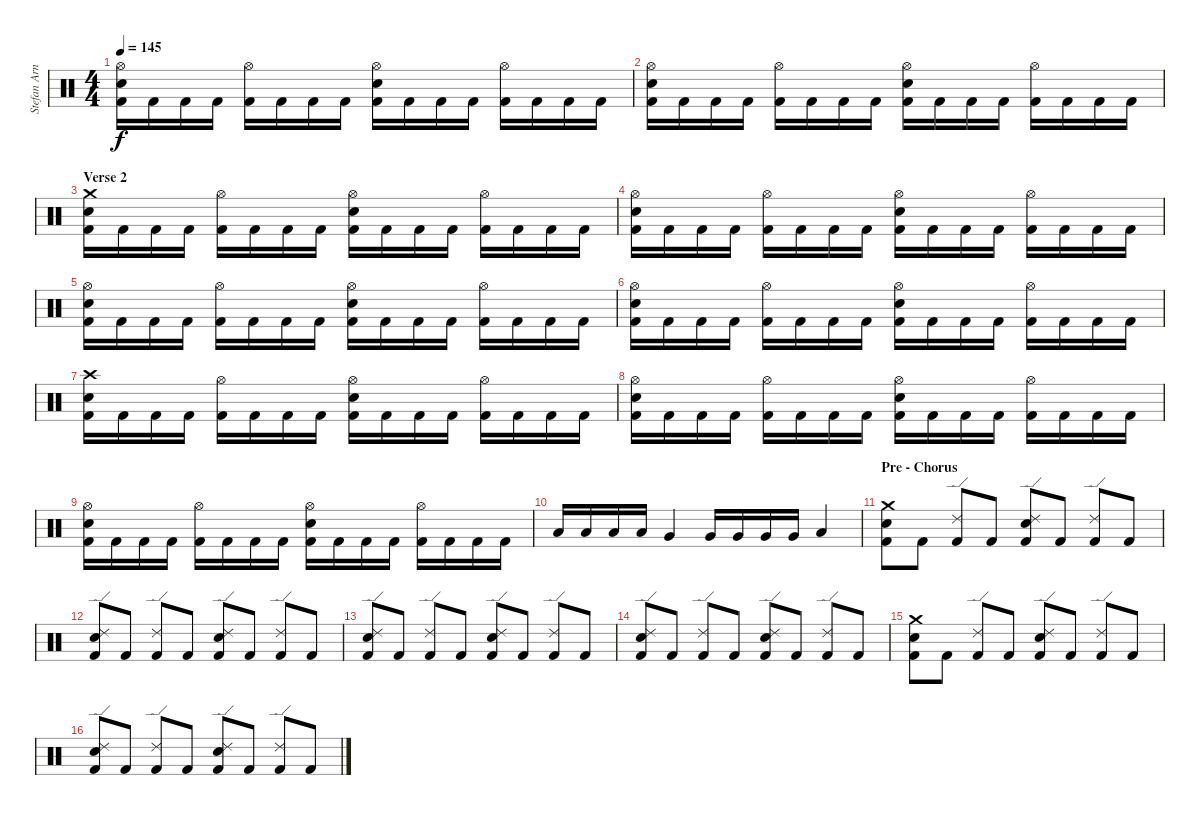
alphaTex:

\track ("Stefan Arnold" "Stefan Arn") {instrument percussion}
\staff {score}
\articulation defaults
\ts (4 4)
\tempo 145
\clef neutral
\ks c
("Hi-Hat (open)" "Electric Snare (hit)" "Kick (hit) 2").16{dy f} "Kick (hit) 2".16 "Kick (hit) 2".16 "Kick (hit) 2".16 ("Hi-Hat (open)" "Kick (hit) 2").16 "Kick (hit) 2".16 "Kick (hit) 2".16 "Kick (hit) 2".16 ("Hi-Hat (open)" "Electric Snare (hit)" "Kick (hit) 2").16 "Kick (hit) 2".16 "Kick (hit) 2".16 "Kick (hit) 2".16 ("Hi-Hat (open)" "Kick (hit) 2").16 "Kick (hit) 2".16 "Kick (hit) 2".16 "Kick (hit) 2".16 |
("Hi-Hat (open)" "Electric Snare (hit)" "Kick (hit) 2").16 "Kick (hit) 2".16 "Kick (hit) 2".16 "Kick (hit) 2".16 ("Hi-Hat (open)" "Kick (hit) 2").16 "Kick (hit) 2".16 "Kick (hit) 2".16 "Kick (hit) 2".16 ("Hi-Hat (open)" "Electric Snare (hit)" "Kick (hit) 2").16 "Kick (hit) 2".16 "Kick (hit) 2".16 "Kick (hit) 2".16 ("Hi-Hat (open)" "Kick (hit) 2").16 "Kick (hit) 2".16 "Kick (hit) 2".16 "Kick (hit) 2".16 |
\section ("" "Verse 2")
("Crash medium (hit)" "Electric Snare (hit)" "Kick (hit) 2").16 "Kick (hit) 2".16 "Kick (hit) 2".16 "Kick (hit) 2".16 ("Hi-Hat (open)" "Kick (hit) 2").16 "Kick (hit) 2".16 "Kick (hit) 2".16 "Kick (hit) 2".16 ("Hi-Hat (open)" "Electric Snare (hit)" "Kick (hit) 2").16 "Kick (hit) 2".16 "Kick (hit) 2".16 "Kick (hit) 2".16 ("Hi-Hat (open)" "Kick (hit) 2").16 "Kick (hit) 2".16 "Kick (hit) 2".16 "Kick (hit) 2".16 |
("Hi-Hat (open)" "Electric Snare (hit)" "Kick (hit) 2").16 "Kick (hit) 2".16 "Kick (hit) 2".16 "Kick (hit) 2".16 ("Hi-Hat (open)" "Kick (hit) 2").16 "Kick (hit) 2".16 "Kick (hit) 2".16 "Kick (hit) 2".16 ("Hi-Hat (open)" "Electric Snare (hit)" "Kick (hit) 2").16 "Kick (hit) 2".16 "Kick (hit) 2".16 "Kick (hit) 2".16 ("Hi-Hat (open)" "Kick (hit) 2").16 "Kick (hit) 2".16 "Kick (hit) 2".16 "Kick (hit) 2".16 |
("Hi-Hat (open)" "Electric Snare (hit)" "Kick (hit) 2").16 "Kick (hit) 2".16 "Kick (hit) 2".16 "Kick (hit) 2".16 ("Hi-Hat (open)" "Kick (hit) 2").16 "Kick (hit) 2".16 "Kick (hit) 2".16 "Kick (hit) 2".16 ("Hi-Hat (open)" "Electric Snare (hit)" "Kick (hit) 2").16 "Kick (hit) 2".16 "Kick (hit) 2".16 "Kick (hit) 2".16 ("Hi-Hat (open)" "Kick (hit) 2").16 "Kick (hit) 2".16 "Kick (hit) 2".16 "Kick (hit) 2".16 |
("Hi-Hat (open)" "Electric Snare (hit)" "Kick (hit) 2").16 "Kick (hit) 2".16 "Kick (hit) 2".16 "Kick (hit) 2".16 ("Hi-Hat (open)" "Kick (hit) 2").16 "Kick (hit) 2".16 "Kick (hit) 2".16 "Kick (hit) 2".16 ("Hi-Hat (open)" "Electric Snare (hit)" "Kick (hit) 2").16 "Kick (hit) 2".16 "Kick (hit) 2".16 "Kick (hit) 2".16 ("Hi-Hat (open)" "Kick (hit) 2").16 "Kick (hit) 2".16 "Kick (hit) 2".16 "Kick (hit) 2".16 |
("Crash high (hit)" "Electric Snare (hit)" "Kick (hit) 2").16 "Kick (hit) 2".16 "Kick (hit) 2".16 "Kick (hit) 2".16 ("Hi-Hat (open)" "Kick (hit) 2").16 "Kick (hit) 2".16 "Kick (hit) 2".16 "Kick (hit) 2".16 ("Hi-Hat (open)" "Electric Snare (hit)" "Kick (hit) 2").16 "Kick (hit) 2".16 "Kick (hit) 2".16 "Kick (hit) 2".16 ("Hi-Hat (open)" "Kick (hit) 2").16 "Kick (hit) 2".16 "Kick (hit) 2".16 "Kick (hit) 2".16 |
("Hi-Hat (open)" "Electric Snare (hit)" "Kick (hit) 2").16 "Kick (hit) 2".16 "Kick (hit) 2".16 "Kick (hit) 2".16 ("Hi-Hat (open)" "Kick (hit) 2").16 "Kick (hit) 2".16 "Kick (hit) 2".16 "Kick (hit) 2".16 ("Hi-Hat (open)" "Electric Snare (hit)" "Kick (hit) 2").16 "Kick (hit) 2".16 "Kick (hit) 2".16 "Kick (hit) 2".16 ("Hi-Hat (open)" "Kick (hit) 2").16 "Kick (hit) 2".16 "Kick (hit) 2".16 "Kick (hit) 2".16 |
("Hi-Hat (open)" "Electric Snare (hit)" "Kick (hit) 2").16 "Kick (hit) 2".16 "Kick (hit) 2".16 "Kick (hit) 2".16 ("Hi-Hat (open)" "Kick (hit) 2").16 "Kick (hit) 2".16 "Kick (hit) 2".16 "Kick (hit) 2".16 ("Hi-Hat (open)" "Electric Snare (hit)" "Kick (hit) 2").16 "Kick (hit) 2".16 "Kick (hit) 2".16 "Kick (hit) 2".16 ("Hi-Hat (open)" "Kick (hit) 2").16 "Kick (hit) 2".16 "Kick (hit) 2".16 "Kick (hit) 2".16 |
"Low Tom (hit)".16 "Low Tom (hit)".16 "Low Tom (hit)".16 "Low Tom (hit)".16 "Very Low Tom (hit)".4 "Very Low Tom (hit)".16 "Very Low Tom (hit)".16 "Very Low Tom (hit)".16 "Very Low Tom (hit)".16 "Low Floor Tom (hit)".4 |
\section ("" "Pre - Chorus")
("Crash medium (hit)" "Electric Snare (hit)" "Kick (hit) 2").8 "Kick (hit) 2".8 ("Ride (edge) 2" "Kick (hit) 2").8 "Kick (hit) 2".8 ("Ride (edge) 2" "Electric Snare (hit)" "Kick (hit) 2").8 "Kick (hit) 2".8 ("Ride (edge) 2" "Kick (hit) 2").8 "Kick (hit) 2".8 |
("Ride (edge) 2" "Electric Snare (hit)" "Kick (hit) 2").8 "Kick (hit) 2".8 ("Ride (edge) 2" "Kick (hit) 2").8 "Kick (hit) 2".8 ("Ride (edge) 2" "Electric Snare (hit)" "Kick (hit) 2").8 "Kick (hit) 2".8 ("Ride (edge) 2" "Kick (hit) 2").8 "Kick (hit) 2".8 |
("Ride (edge) 2" "Electric Snare (hit)" "Kick (hit) 2").8 "Kick (hit) 2".8 ("Ride (edge) 2" "Kick (hit) 2").8 "Kick (hit) 2".8 ("Ride (edge) 2" "Electric Snare (hit)" "Kick (hit) 2").8 "Kick (hit) 2".8 ("Ride (edge) 2" "Kick (hit) 2").8 "Kick (hit) 2".8 |
("Ride (edge) 2" "Electric Snare (hit)" "Kick (hit) 2").8 "Kick (hit) 2".8 ("Ride (edge) 2" "Kick (hit) 2").8 "Kick (hit) 2".8 ("Ride (edge) 2" "Electric Snare (hit)" "Kick (hit) 2").8 "Kick (hit) 2".8 ("Ride (edge) 2" "Kick (hit) 2").8 "Kick (hit) 2".8 |
("Crash medium (hit)" "Electric Snare (hit)" "Kick (hit) 2").8 "Kick (hit) 2".8 ("Ride (edge) 2" "Kick (hit) 2").8 "Kick (hit) 2".8 ("Ride (edge) 2" "Electric Snare (hit)" "Kick (hit) 2").8 "Kick (hit) 2".8 ("Ride (edge) 2" "Kick (hit) 2").8 "Kick (hit) 2".8 |
("Ride (edge) 2" "Electric Snare (hit)" "Kick (hit) 2").8 "Kick (hit) 2".8 ("Ride (edge) 2" "Kick (hit) 2").8 "Kick (hit) 2".8 ("Ride (edge) 2" "Electric Snare (hit)" "Kick (hit) 2").8 "Kick (hit) 2".8 ("Ride (edge) 2" "Kick (hit) 2").8 "Kick (hit) 2".8
